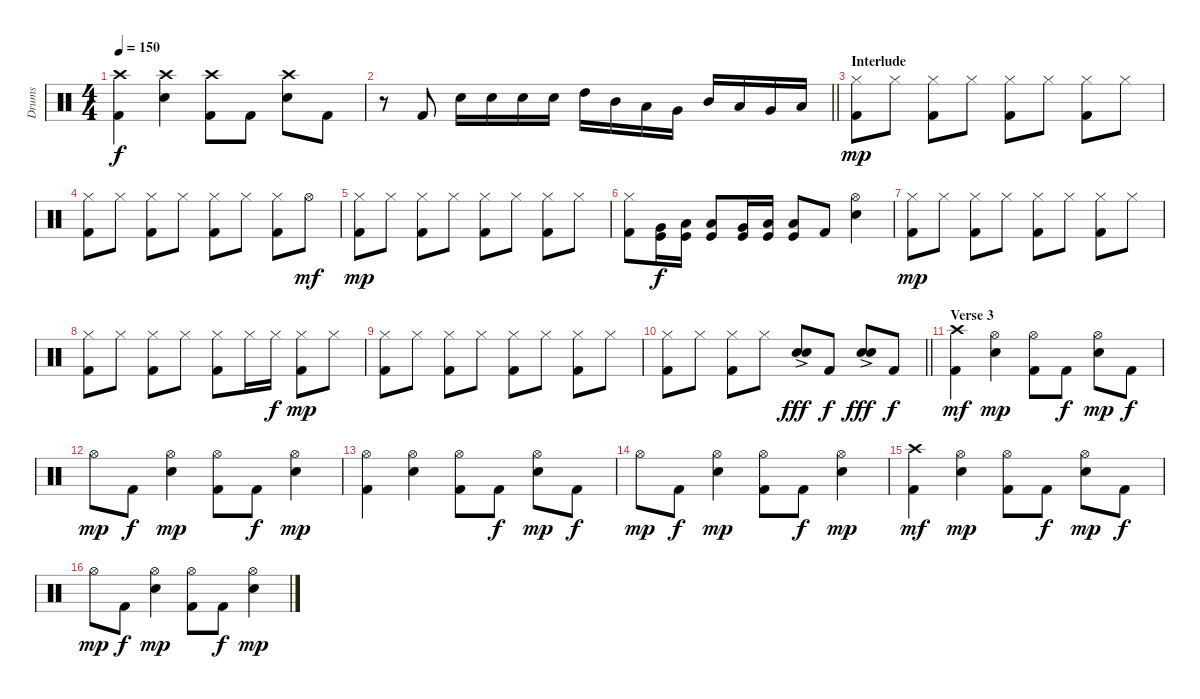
\track ("Drums" "Drums") {instrument percussion}
\staff {score}
\articulation defaults
\ts (4 4)
\tempo 150
\clef neutral
\ks c
("Crash high (hit)" "Kick (hit) 2").4{dy f} ("Crash high (hit)" "Snare (hit) 2").4 ("Crash high (hit)" "Kick (hit) 2").8 "Kick (hit) 2".8 ("Crash high (hit)" "Snare (hit) 2").8 "Kick (hit) 2".8 |
\barLineRight lightlight
r.8 "Kick (hit) 2".8 "Snare (hit) 2".16 "Snare (hit) 2".16 "Snare (hit) 2".16 "Snare (hit) 2".16 "High Tom (hit)".16 "Mid Tom (hit)".16 "Low Tom (hit)".16 "Very Low Tom (hit)".16 "Mid Tom (hit)".16 "Low Tom (hit)".16 "Very Low Tom (hit)".16 "Low Floor Tom (hit)".16 |
\section ("" "Interlude")
("Hi-Hat (closed)" "Kick (hit) 2").8{dy mp} "Hi-Hat (closed)".8 ("Hi-Hat (closed)" "Kick (hit) 2").8 "Hi-Hat (closed)".8 ("Hi-Hat (closed)" "Kick (hit) 2").8 "Hi-Hat (closed)".8 ("Hi-Hat (closed)" "Kick (hit) 2").8 "Hi-Hat (closed)".8 |
("Hi-Hat (closed)" "Kick (hit) 2").8 "Hi-Hat (closed)".8 ("Hi-Hat (closed)" "Kick (hit) 2").8 "Hi-Hat (closed)".8 ("Hi-Hat (closed)" "Kick (hit) 2").8 "Hi-Hat (closed)".8 ("Hi-Hat (closed)" "Kick (hit) 2").8 "Hi-Hat (open)".8{dy mf} |
("Hi-Hat (closed)" "Kick (hit) 2").8{dy mp} "Hi-Hat (closed)".8 ("Hi-Hat (closed)" "Kick (hit) 2").8 "Hi-Hat (closed)".8 ("Hi-Hat (closed)" "Kick (hit) 2").8 "Hi-Hat (closed)".8 ("Hi-Hat (closed)" "Kick (hit) 2").8 "Hi-Hat (closed)".8 |
("Hi-Hat (closed)" "Kick (hit) 2").8 ("Very Low Tom (hit)" "Kick (hit)").16{dy f} ("Low Floor Tom (hit)" "Kick (hit)").16 ("Low Floor Tom (hit)" "Kick (hit)").8 ("Very Low Tom (hit)" "Kick (hit)").16 ("Low Floor Tom (hit)" "Kick (hit)").16 ("Low Floor Tom (hit)" "Kick (hit)").8 "Kick (hit) 2".8 ("Hi-Hat (open)" "Snare (hit) 2").4 |
("Hi-Hat (closed)" "Kick (hit) 2").8{dy mp} "Hi-Hat (closed)".8 ("Hi-Hat (closed)" "Kick (hit) 2").8 "Hi-Hat (closed)".8 ("Hi-Hat (closed)" "Kick (hit) 2").8 "Hi-Hat (closed)".8 ("Hi-Hat (closed)" "Kick (hit) 2").8 "Hi-Hat (closed)".8 |
("Hi-Hat (closed)" "Kick (hit) 2").8 "Hi-Hat (closed)".8 ("Hi-Hat (closed)" "Kick (hit) 2").8 "Hi-Hat (closed)".8 ("Hi-Hat (closed)" "Kick (hit) 2").8 "Hi-Hat (closed)".16 "Hi-Hat (closed)".16{dy f} ("Hi-Hat (closed)" "Kick (hit) 2").8{dy mp} "Hi-Hat (closed)".8 |
("Hi-Hat (closed)" "Kick (hit) 2").8 "Hi-Hat (closed)".8 ("Hi-Hat (closed)" "Kick (hit) 2").8 "Hi-Hat (closed)".8 ("Hi-Hat (closed)" "Kick (hit) 2").8 "Hi-Hat (closed)".8 ("Hi-Hat (closed)" "Kick (hit) 2").8 "Hi-Hat (closed)".8 |
\barLineRight lightlight
("Hi-Hat (closed)" "Kick (hit) 2").8 "Hi-Hat (closed)".8 ("Hi-Hat (closed)" "Kick (hit) 2").8 "Hi-Hat (closed)".8 ("Snare (hit) 2"{ac} "Snare (hit) 2"{ac}).8{dy fff} "Kick (hit) 2".8{dy f} ("Snare (hit) 2"{ac} "Snare (hit) 2"{ac}).8{dy fff} "Kick (hit) 2".8{dy f} |
\section ("" "Verse 3")
("Crash high (hit)" "Kick (hit) 2").4{dy mf} ("Hi-Hat (open)" "Snare (hit) 2").4{dy mp} ("Hi-Hat (open)" "Kick (hit) 2").8 "Kick (hit) 2".8{dy f} ("Hi-Hat (open)" "Snare (hit) 2").8{dy mp} "Kick (hit) 2".8{dy f} |
"Hi-Hat (open)".8{dy mp} "Kick (hit) 2".8{dy f} ("Hi-Hat (open)" "Snare (hit) 2").4{dy mp} ("Hi-Hat (open)" "Kick (hit) 2").8 "Kick (hit) 2".8{dy f} ("Hi-Hat (open)" "Snare (hit) 2").4{dy mp} |
("Hi-Hat (open)" "Kick (hit) 2").4 ("Hi-Hat (open)" "Snare (hit) 2").4 ("Hi-Hat (open)" "Kick (hit) 2").8 "Kick (hit) 2".8{dy f} ("Hi-Hat (open)" "Snare (hit) 2").8{dy mp} "Kick (hit) 2".8{dy f} |
"Hi-Hat (open)".8{dy mp} "Kick (hit) 2".8{dy f} ("Hi-Hat (open)" "Snare (hit) 2").4{dy mp} ("Hi-Hat (open)" "Kick (hit) 2").8 "Kick (hit) 2".8{dy f} ("Hi-Hat (open)" "Snare (hit) 2").4{dy mp} |
("Crash high (hit)" "Kick (hit) 2").4{dy mf} ("Hi-Hat (open)" "Snare (hit) 2").4{dy mp} ("Hi-Hat (open)" "Kick (hit) 2").8 "Kick (hit) 2".8{dy f} ("Hi-Hat (open)" "Snare (hit) 2").8{dy mp} "Kick (hit) 2".8{dy f} |
"Hi-Hat (open)".8{dy mp} "Kick (hit) 2".8{dy f} ("Hi-Hat (open)" "Snare (hit) 2").4{dy mp} ("Hi-Hat (open)" "Kick (hit) 2").8 "Kick (hit) 2".8{dy f} ("Hi-Hat (open)" "Snare (hit) 2").4{dy mp}
